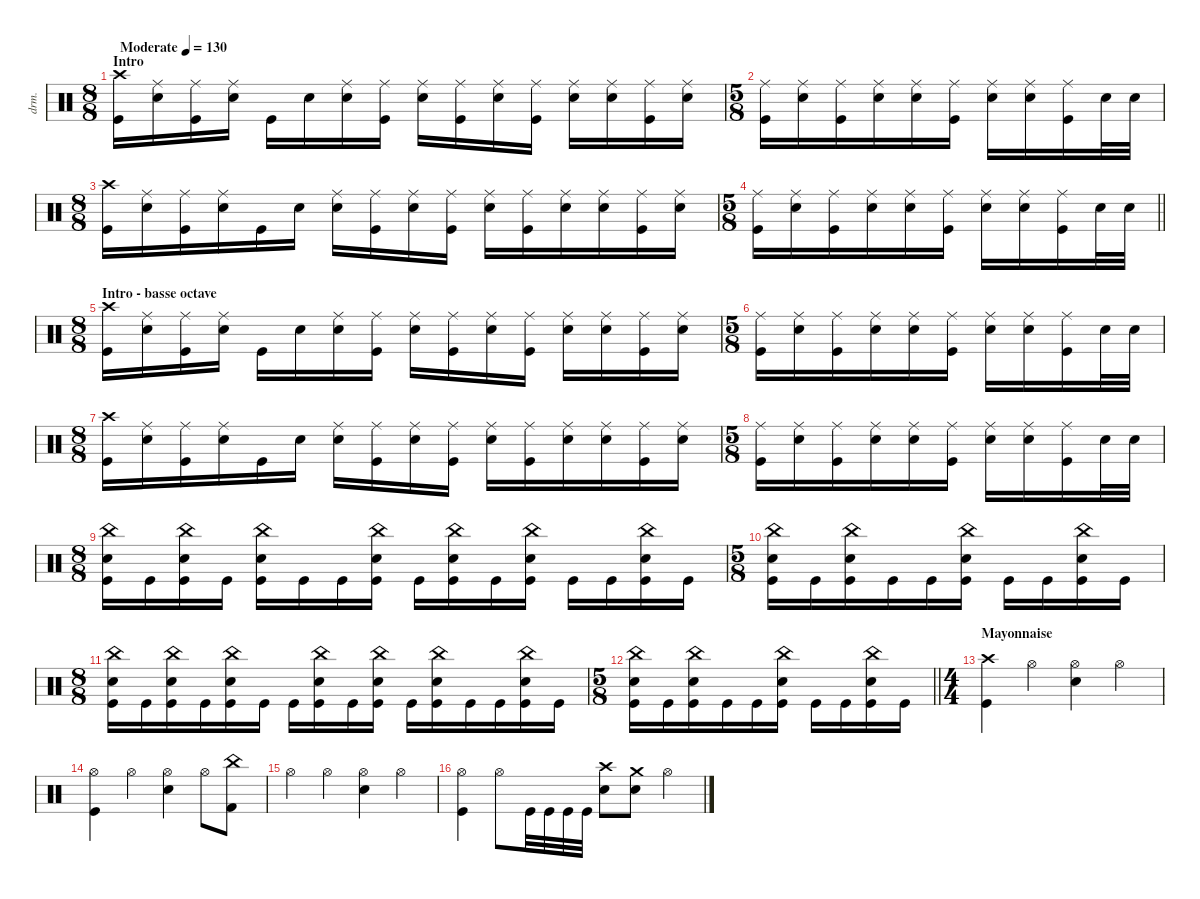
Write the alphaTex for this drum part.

\defaultSystemsLayout 4
\hideDynamics
\bracketExtendMode nobrackets
\track ("Manouche" "drm.") {instrument percussion}
\staff {score}
\articulation defaults
\ts (8 8)
\beaming (8 2 2 2 2)
\section ("" "Intro")
\tempo (130 "Moderate")
\clef neutral
\ks c
("Crash high (hit)" "Kick (hit)").16{dy f} ("Snare (hit) 2" "Ride (middle)").16 ("Kick (hit)" "Ride (middle)").16 ("Snare (hit) 2" "Ride (middle)").16 "Kick (hit)".16 "Snare (hit) 2".16 ("Snare (hit) 2" "Ride (middle)").16 ("Kick (hit)" "Ride (middle)").16 ("Snare (hit) 2" "Ride (middle)").16 ("Kick (hit)" "Ride (middle)").16 ("Snare (hit) 2" "Ride (middle)").16 ("Ride (middle)" "Kick (hit)").16 ("Snare (hit) 2" "Ride (middle)").16 ("Snare (hit) 2" "Ride (middle)").16 ("Kick (hit)" "Ride (middle)").16 ("Snare (hit) 2" "Ride (middle)").16 |
\ts (5 8)
\beaming (8 3 2)
("Kick (hit)" "Ride (middle)").16 ("Snare (hit) 2" "Ride (middle)").16 ("Kick (hit)" "Ride (middle)").16 ("Snare (hit) 2" "Ride (middle)").16 ("Snare (hit) 2" "Ride (middle)").16 ("Kick (hit)" "Ride (middle)").16 ("Snare (hit) 2" "Ride (middle)").16 ("Snare (hit) 2" "Ride (middle)").16 ("Kick (hit)" "Ride (middle)").16 "Snare (hit) 2".32 "Snare (hit) 2".32 |
\ts (8 8)
\beaming (8 3 2 3)
("Crash high (hit)" "Kick (hit)").16 ("Snare (hit) 2" "Ride (middle)").16 ("Kick (hit)" "Ride (middle)").16 ("Snare (hit) 2" "Ride (middle)").16 "Kick (hit)".16 "Snare (hit) 2".16 ("Snare (hit) 2" "Ride (middle)").16 ("Kick (hit)" "Ride (middle)").16 ("Snare (hit) 2" "Ride (middle)").16 ("Kick (hit)" "Ride (middle)").16 ("Snare (hit) 2" "Ride (middle)").16 ("Ride (middle)" "Kick (hit)").16 ("Snare (hit) 2" "Ride (middle)").16 ("Snare (hit) 2" "Ride (middle)").16 ("Kick (hit)" "Ride (middle)").16 ("Snare (hit) 2" "Ride (middle)").16 |
\ts (5 8)
\beaming (8 3 2)
\barLineRight lightlight
("Kick (hit)" "Ride (middle)").16 ("Snare (hit) 2" "Ride (middle)").16 ("Kick (hit)" "Ride (middle)").16 ("Snare (hit) 2" "Ride (middle)").16 ("Snare (hit) 2" "Ride (middle)").16 ("Kick (hit)" "Ride (middle)").16 ("Snare (hit) 2" "Ride (middle)").16 ("Snare (hit) 2" "Ride (middle)").16 ("Kick (hit)" "Ride (middle)").16 "Snare (hit) 2".32 "Snare (hit) 2".32 |
\ts (8 8)
\beaming (8 2 2 2 2)
\section ("" "Intro - basse octave")
("Crash high (hit)" "Kick (hit)").16 ("Snare (hit) 2" "Ride (middle)").16 ("Kick (hit)" "Ride (middle)").16 ("Snare (hit) 2" "Ride (middle)").16 "Kick (hit)".16 "Snare (hit) 2".16 ("Snare (hit) 2" "Ride (middle)").16 ("Kick (hit)" "Ride (middle)").16 ("Snare (hit) 2" "Ride (middle)").16 ("Kick (hit)" "Ride (middle)").16 ("Snare (hit) 2" "Ride (middle)").16 ("Ride (middle)" "Kick (hit)").16 ("Snare (hit) 2" "Ride (middle)").16 ("Snare (hit) 2" "Ride (middle)").16 ("Kick (hit)" "Ride (middle)").16 ("Snare (hit) 2" "Ride (middle)").16 |
\ts (5 8)
\beaming (8 3 2)
("Kick (hit)" "Ride (middle)").16 ("Snare (hit) 2" "Ride (middle)").16 ("Kick (hit)" "Ride (middle)").16 ("Snare (hit) 2" "Ride (middle)").16 ("Snare (hit) 2" "Ride (middle)").16 ("Kick (hit)" "Ride (middle)").16 ("Snare (hit) 2" "Ride (middle)").16 ("Snare (hit) 2" "Ride (middle)").16 ("Kick (hit)" "Ride (middle)").16 "Snare (hit) 2".32 "Snare (hit) 2".32 |
\ts (8 8)
\beaming (8 3 2 3)
("Crash high (hit)" "Kick (hit)").16 ("Snare (hit) 2" "Ride (middle)").16 ("Kick (hit)" "Ride (middle)").16 ("Snare (hit) 2" "Ride (middle)").16 "Kick (hit)".16 "Snare (hit) 2".16 ("Snare (hit) 2" "Ride (middle)").16 ("Kick (hit)" "Ride (middle)").16 ("Snare (hit) 2" "Ride (middle)").16 ("Kick (hit)" "Ride (middle)").16 ("Snare (hit) 2" "Ride (middle)").16 ("Ride (middle)" "Kick (hit)").16 ("Snare (hit) 2" "Ride (middle)").16 ("Snare (hit) 2" "Ride (middle)").16 ("Kick (hit)" "Ride (middle)").16 ("Snare (hit) 2" "Ride (middle)").16 |
\ts (5 8)
\beaming (8 3 2)
("Kick (hit)" "Ride (middle)").16 ("Snare (hit) 2" "Ride (middle)").16 ("Kick (hit)" "Ride (middle)").16 ("Snare (hit) 2" "Ride (middle)").16 ("Snare (hit) 2" "Ride (middle)").16 ("Kick (hit)" "Ride (middle)").16 ("Snare (hit) 2" "Ride (middle)").16 ("Snare (hit) 2" "Ride (middle)").16 ("Kick (hit)" "Ride (middle)").16 "Snare (hit) 2".32 "Snare (hit) 2".32 |
\ts (8 8)
\beaming (8 2 2 2 2)
("Snare (hit) 2" "China (hit)" "Kick (hit)").16 "Kick (hit)".16 ("Kick (hit)" "Snare (hit) 2" "China (hit)").16 "Kick (hit)".16 ("Kick (hit)" "Snare (hit) 2" "China (hit)").16 "Kick (hit)".16 "Kick (hit)".16 ("Kick (hit)" "Snare (hit) 2" "China (hit)").16 "Kick (hit)".16 ("Kick (hit)" "Snare (hit) 2" "China (hit)").16 "Kick (hit)".16 ("Kick (hit)" "Snare (hit) 2" "China (hit)").16 "Kick (hit)".16 "Kick (hit)".16 ("Kick (hit)" "Snare (hit) 2" "China (hit)").16 "Kick (hit)".16 |
\ts (5 8)
\beaming (8 3 2)
("Kick (hit)" "Snare (hit) 2" "China (hit)").16 "Kick (hit)".16 ("Kick (hit)" "Snare (hit) 2" "China (hit)").16 "Kick (hit)".16 "Kick (hit)".16 ("Kick (hit)" "Snare (hit) 2" "China (hit)").16 "Kick (hit)".16 "Kick (hit)".16 ("Kick (hit)" "Snare (hit) 2" "China (hit)").16 "Kick (hit)".16 |
\ts (8 8)
\beaming (8 3 2 3)
("Snare (hit) 2" "China (hit)" "Kick (hit)").16 "Kick (hit)".16 ("Kick (hit)" "Snare (hit) 2" "China (hit)").16 "Kick (hit)".16 ("Kick (hit)" "Snare (hit) 2" "China (hit)").16 "Kick (hit)".16 "Kick (hit)".16 ("Kick (hit)" "Snare (hit) 2" "China (hit)").16 "Kick (hit)".16 ("Kick (hit)" "Snare (hit) 2" "China (hit)").16 "Kick (hit)".16 ("Kick (hit)" "Snare (hit) 2" "China (hit)").16 "Kick (hit)".16 "Kick (hit)".16 ("Kick (hit)" "Snare (hit) 2" "China (hit)").16 "Kick (hit)".16 |
\ts (5 8)
\beaming (8 3 2)
\barLineRight lightlight
("Kick (hit)" "Snare (hit) 2" "China (hit)").16 "Kick (hit)".16 ("Kick (hit)" "Snare (hit) 2" "China (hit)").16 "Kick (hit)".16 "Kick (hit)".16 ("Kick (hit)" "Snare (hit) 2" "China (hit)").16 "Kick (hit)".16 "Kick (hit)".16 ("Kick (hit)" "Snare (hit) 2" "China (hit)").16 "Kick (hit)".16 |
\ts (4 4)
\beaming (8 2 2 2 2)
\section ("" "Mayonnaise")
("Crash high (hit)" "Kick (hit)").4 "Hi-Hat (open)".4 ("Hi-Hat (open)" "Snare (hit) 2").4 "Hi-Hat (open)".4 |
("Hi-Hat (open)" "Kick (hit)").4 "Hi-Hat (open)".4 ("Hi-Hat (open)" "Snare (hit) 2").4 "Hi-Hat (open)".8 ("China (hit)" "Kick (hit) 2").8 |
"Hi-Hat (open)".4 "Hi-Hat (open)".4 ("Hi-Hat (open)" "Snare (hit) 2").4 "Hi-Hat (open)".4 |
("Hi-Hat (open)" "Kick (hit)").4 "Hi-Hat (open)".8 "Kick (hit)".32 "Kick (hit)".32 "Kick (hit)".32 "Kick (hit)".32 ("Snare (hit) 2" "Crash high (hit)").8 ("Crash medium (hit)" "Snare (hit) 2").8 "Hi-Hat (open)".4
